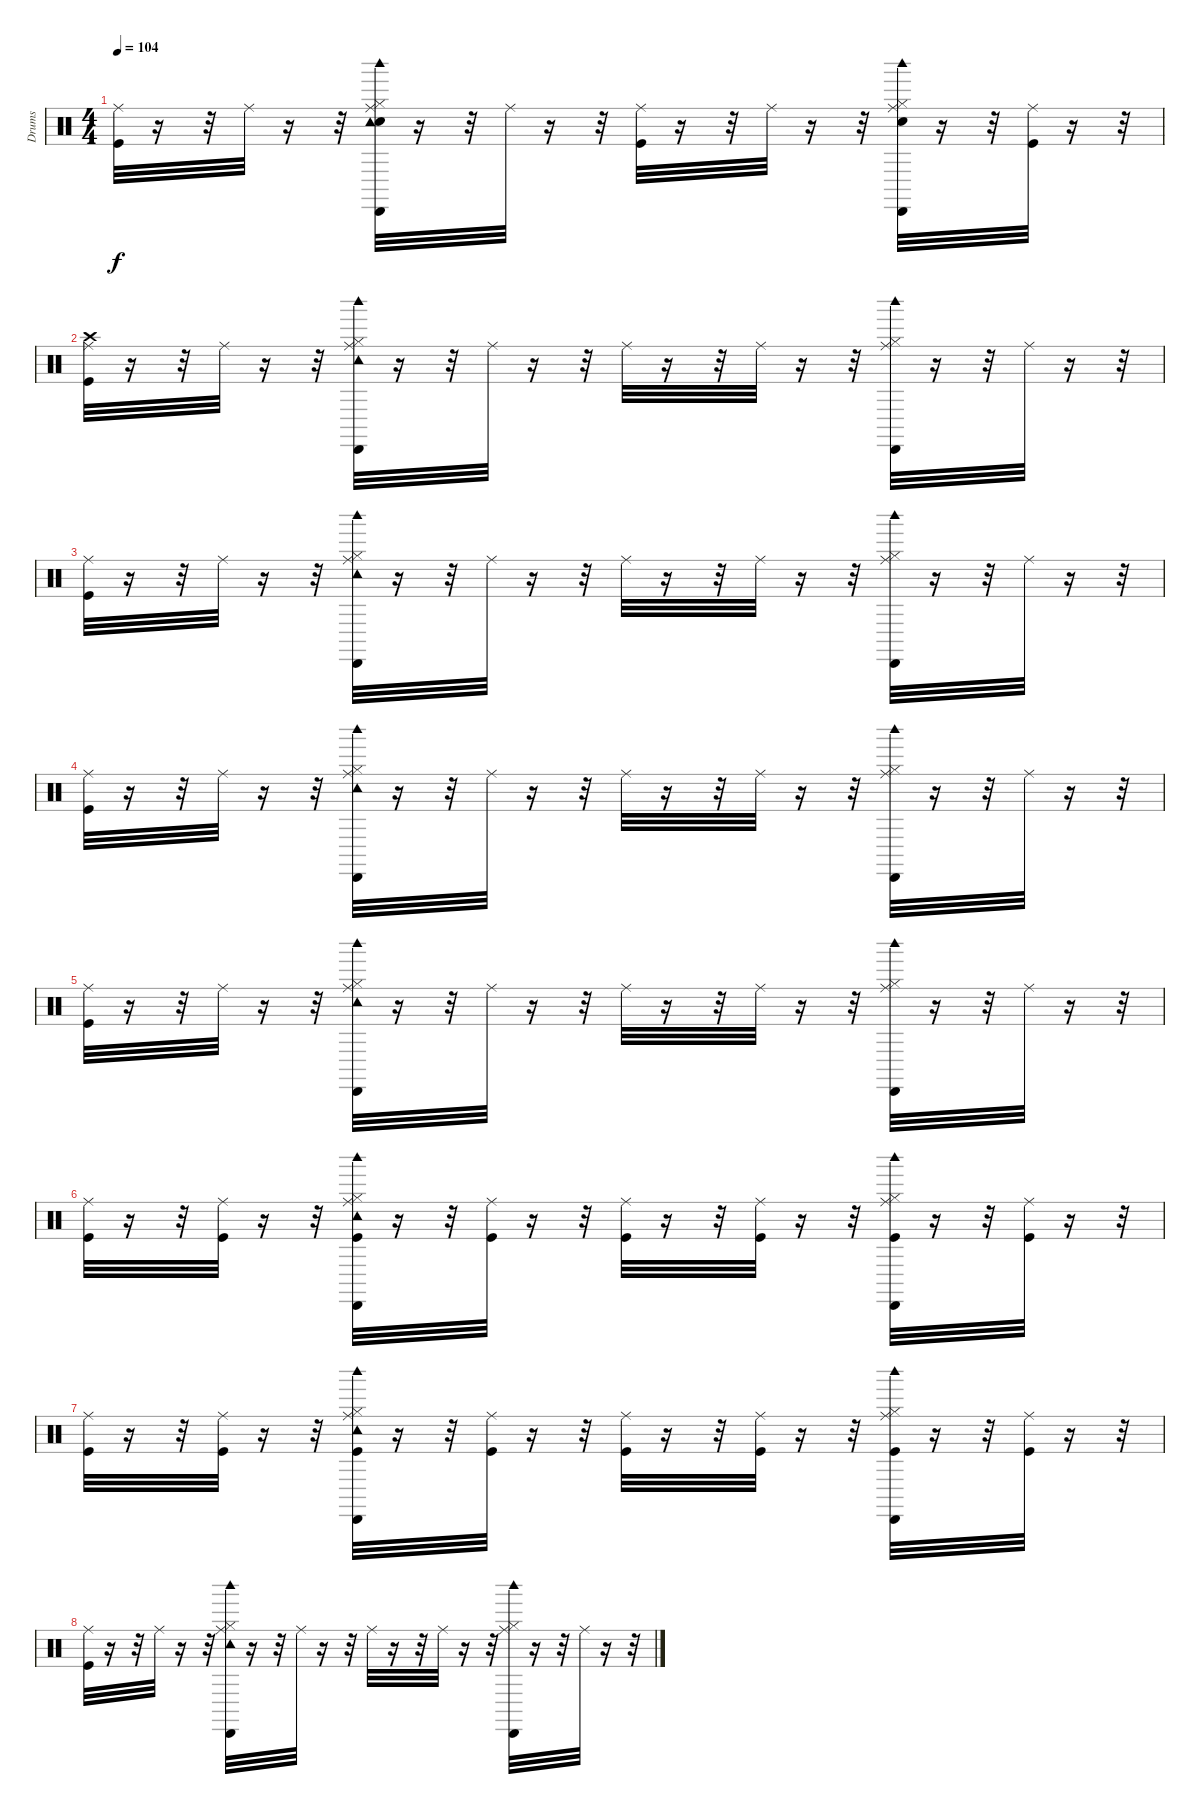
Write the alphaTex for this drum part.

\track ("Drums" "Drums") {instrument percussion}
\staff {score}
\articulation defaults
\ts (4 4)
\tempo 104
\clef neutral
\ks c
("Kick (hit)" "Ride (middle)").32{dy f} r.16 r.32 "Ride (middle)".32 r.16 r.32 ("Snare (hit) 2" "Hi-Hat (closed)" "Ride (middle)" "Tambourine (hit)" "Cabasa (hit)" "Woodblock high (hit)").32 r.16 r.32 "Ride (middle)".32 r.16 r.32 ("Kick (hit)" "Ride (middle)").32 r.16 r.32 "Ride (middle)".32 r.16 r.32 ("Snare (hit) 2" "Hi-Hat (closed)" "Ride (middle)" "Cabasa (hit)" "Woodblock high (hit)").32 r.16 r.32 ("Kick (hit)" "Ride (middle)").32 r.16 r.32 |
("Kick (hit)" "Crash high (hit)" "Ride (middle)").32 r.16 r.32 "Ride (middle)".32 r.16 r.32 ("Hi-Hat (closed)" "Ride (middle)" "Tambourine (hit)" "Cabasa (hit)" "Woodblock high (hit)").32 r.16 r.32 "Ride (middle)".32 r.16 r.32 "Ride (middle)".32 r.16 r.32 "Ride (middle)".32 r.16 r.32 ("Hi-Hat (closed)" "Ride (middle)" "Cabasa (hit)" "Woodblock high (hit)").32 r.16 r.32 "Ride (middle)".32 r.16 r.32 |
("Kick (hit)" "Ride (middle)").32 r.16 r.32 "Ride (middle)".32 r.16 r.32 ("Hi-Hat (closed)" "Ride (middle)" "Tambourine (hit)" "Cabasa (hit)" "Woodblock high (hit)").32 r.16 r.32 "Ride (middle)".32 r.16 r.32 "Ride (middle)".32 r.16 r.32 "Ride (middle)".32 r.16 r.32 ("Hi-Hat (closed)" "Ride (middle)" "Cabasa (hit)" "Woodblock high (hit)").32 r.16 r.32 "Ride (middle)".32 r.16 r.32 |
("Kick (hit)" "Ride (middle)").32 r.16 r.32 "Ride (middle)".32 r.16 r.32 ("Hi-Hat (closed)" "Ride (middle)" "Tambourine (hit)" "Cabasa (hit)" "Woodblock high (hit)").32 r.16 r.32 "Ride (middle)".32 r.16 r.32 "Ride (middle)".32 r.16 r.32 "Ride (middle)".32 r.16 r.32 ("Hi-Hat (closed)" "Ride (middle)" "Cabasa (hit)" "Woodblock high (hit)").32 r.16 r.32 "Ride (middle)".32 r.16 r.32 |
("Kick (hit)" "Ride (middle)").32 r.16 r.32 "Ride (middle)".32 r.16 r.32 ("Hi-Hat (closed)" "Ride (middle)" "Tambourine (hit)" "Cabasa (hit)" "Woodblock high (hit)").32 r.16 r.32 "Ride (middle)".32 r.16 r.32 "Ride (middle)".32 r.16 r.32 "Ride (middle)".32 r.16 r.32 ("Hi-Hat (closed)" "Ride (middle)" "Cabasa (hit)" "Woodblock high (hit)").32 r.16 r.32 "Ride (middle)".32 r.16 r.32 |
("Kick (hit)" "Ride (middle)").32 r.16 r.32 ("Kick (hit)" "Ride (middle)").32 r.16 r.32 ("Kick (hit)" "Hi-Hat (closed)" "Ride (middle)" "Tambourine (hit)" "Cabasa (hit)" "Woodblock high (hit)").32 r.16 r.32 ("Kick (hit)" "Ride (middle)").32 r.16 r.32 ("Kick (hit)" "Ride (middle)").32 r.16 r.32 ("Kick (hit)" "Ride (middle)").32 r.16 r.32 ("Kick (hit)" "Hi-Hat (closed)" "Ride (middle)" "Cabasa (hit)" "Woodblock high (hit)").32 r.16 r.32 ("Kick (hit)" "Ride (middle)").32 r.16 r.32 |
("Kick (hit)" "Ride (middle)").32 r.16 r.32 ("Kick (hit)" "Ride (middle)").32 r.16 r.32 ("Kick (hit)" "Hi-Hat (closed)" "Ride (middle)" "Tambourine (hit)" "Cabasa (hit)" "Woodblock high (hit)").32 r.16 r.32 ("Kick (hit)" "Ride (middle)").32 r.16 r.32 ("Kick (hit)" "Ride (middle)").32 r.16 r.32 ("Kick (hit)" "Ride (middle)").32 r.16 r.32 ("Kick (hit)" "Hi-Hat (closed)" "Ride (middle)" "Cabasa (hit)" "Woodblock high (hit)").32 r.16 r.32 ("Kick (hit)" "Ride (middle)").32 r.16 r.32 |
("Kick (hit)" "Ride (middle)").32 r.16 r.32 "Ride (middle)".32 r.16 r.32 ("Hi-Hat (closed)" "Ride (middle)" "Tambourine (hit)" "Cabasa (hit)" "Woodblock high (hit)").32 r.16 r.32 "Ride (middle)".32 r.16 r.32 "Ride (middle)".32 r.16 r.32 "Ride (middle)".32 r.16 r.32 ("Hi-Hat (closed)" "Ride (middle)" "Cabasa (hit)" "Woodblock high (hit)").32 r.16 r.32 "Ride (middle)".32 r.16 r.32
